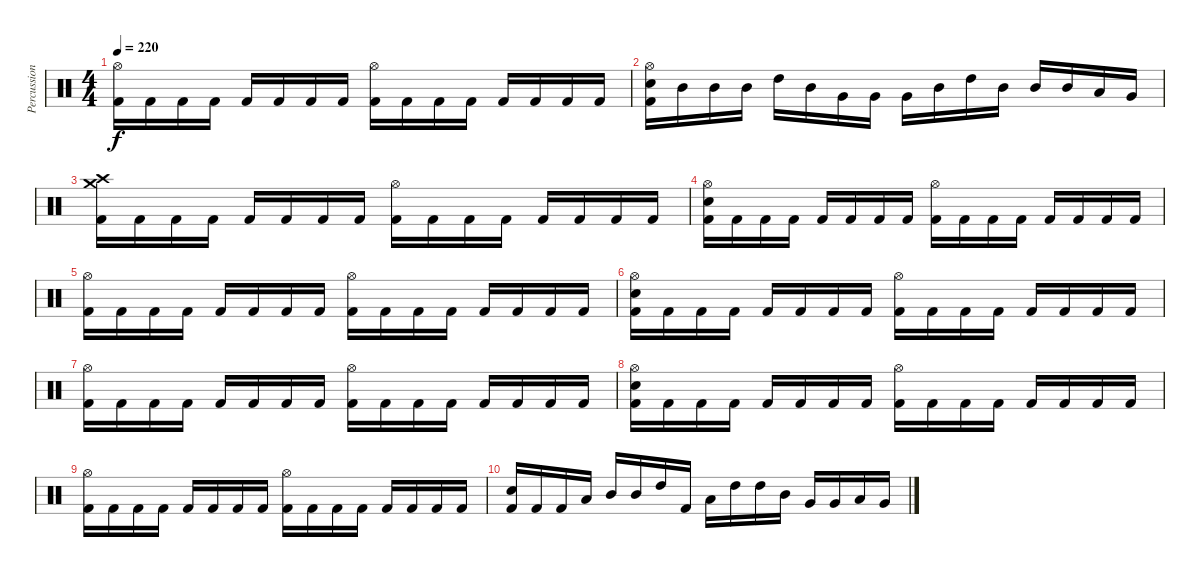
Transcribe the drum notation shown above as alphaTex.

\track ("Percussion" "Percussion") {instrument percussion}
\staff {score}
\articulation defaults
\ts (4 4)
\tempo 220
\clef neutral
\ks c
("Hi-Hat (open)" "Kick (hit) 2").16{dy f} "Kick (hit) 2".16 "Kick (hit) 2".16 "Kick (hit) 2".16 "Kick (hit) 2".16 "Kick (hit) 2".16 "Kick (hit) 2".16 "Kick (hit) 2".16 ("Hi-Hat (open)" "Kick (hit) 2").16 "Kick (hit) 2".16 "Kick (hit) 2".16 "Kick (hit) 2".16 "Kick (hit) 2".16 "Kick (hit) 2".16 "Kick (hit) 2".16 "Kick (hit) 2".16 |
("Hi-Hat (open)" "Electric Snare (hit)" "Kick (hit) 2").16 "Mid Tom (hit)".16 "Mid Tom (hit)".16 "Mid Tom (hit)".16 "High Tom (hit)".16 "Mid Tom (hit)".16 "Very Low Tom (hit)".16 "Very Low Tom (hit)".16 "Very Low Tom (hit)".16 "Mid Tom (hit)".16 "High Tom (hit)".16 "Mid Tom (hit)".16 "Mid Tom (hit)".16 "Mid Tom (hit)".16 "Low Tom (hit)".16 "Very Low Tom (hit)".16 |
("Crash medium (hit)" "Crash high (hit)" "Kick (hit) 2").16 "Kick (hit) 2".16 "Kick (hit) 2".16 "Kick (hit) 2".16 "Kick (hit) 2".16 "Kick (hit) 2".16 "Kick (hit) 2".16 "Kick (hit) 2".16 ("Hi-Hat (open)" "Kick (hit) 2").16 "Kick (hit) 2".16 "Kick (hit) 2".16 "Kick (hit) 2".16 "Kick (hit) 2".16 "Kick (hit) 2".16 "Kick (hit) 2".16 "Kick (hit) 2".16 |
("Hi-Hat (open)" "Electric Snare (hit)" "Kick (hit) 2").16 "Kick (hit) 2".16 "Kick (hit) 2".16 "Kick (hit) 2".16 "Kick (hit) 2".16 "Kick (hit) 2".16 "Kick (hit) 2".16 "Kick (hit) 2".16 ("Hi-Hat (open)" "Kick (hit) 2").16 "Kick (hit) 2".16 "Kick (hit) 2".16 "Kick (hit) 2".16 "Kick (hit) 2".16 "Kick (hit) 2".16 "Kick (hit) 2".16 "Kick (hit) 2".16 |
("Hi-Hat (open)" "Kick (hit) 2").16 "Kick (hit) 2".16 "Kick (hit) 2".16 "Kick (hit) 2".16 "Kick (hit) 2".16 "Kick (hit) 2".16 "Kick (hit) 2".16 "Kick (hit) 2".16 ("Hi-Hat (open)" "Kick (hit) 2").16 "Kick (hit) 2".16 "Kick (hit) 2".16 "Kick (hit) 2".16 "Kick (hit) 2".16 "Kick (hit) 2".16 "Kick (hit) 2".16 "Kick (hit) 2".16 |
("Hi-Hat (open)" "Electric Snare (hit)" "Kick (hit) 2").16 "Kick (hit) 2".16 "Kick (hit) 2".16 "Kick (hit) 2".16 "Kick (hit) 2".16 "Kick (hit) 2".16 "Kick (hit) 2".16 "Kick (hit) 2".16 ("Hi-Hat (open)" "Kick (hit) 2").16 "Kick (hit) 2".16 "Kick (hit) 2".16 "Kick (hit) 2".16 "Kick (hit) 2".16 "Kick (hit) 2".16 "Kick (hit) 2".16 "Kick (hit) 2".16 |
("Hi-Hat (open)" "Kick (hit) 2").16 "Kick (hit) 2".16 "Kick (hit) 2".16 "Kick (hit) 2".16 "Kick (hit) 2".16 "Kick (hit) 2".16 "Kick (hit) 2".16 "Kick (hit) 2".16 ("Hi-Hat (open)" "Kick (hit) 2").16 "Kick (hit) 2".16 "Kick (hit) 2".16 "Kick (hit) 2".16 "Kick (hit) 2".16 "Kick (hit) 2".16 "Kick (hit) 2".16 "Kick (hit) 2".16 |
("Hi-Hat (open)" "Electric Snare (hit)" "Kick (hit) 2").16 "Kick (hit) 2".16 "Kick (hit) 2".16 "Kick (hit) 2".16 "Kick (hit) 2".16 "Kick (hit) 2".16 "Kick (hit) 2".16 "Kick (hit) 2".16 ("Hi-Hat (open)" "Kick (hit) 2").16 "Kick (hit) 2".16 "Kick (hit) 2".16 "Kick (hit) 2".16 "Kick (hit) 2".16 "Kick (hit) 2".16 "Kick (hit) 2".16 "Kick (hit) 2".16 |
("Hi-Hat (open)" "Kick (hit) 2").16 "Kick (hit) 2".16 "Kick (hit) 2".16 "Kick (hit) 2".16 "Kick (hit) 2".16 "Kick (hit) 2".16 "Kick (hit) 2".16 "Kick (hit) 2".16 ("Hi-Hat (open)" "Kick (hit) 2").16 "Kick (hit) 2".16 "Kick (hit) 2".16 "Kick (hit) 2".16 "Kick (hit) 2".16 "Kick (hit) 2".16 "Kick (hit) 2".16 "Kick (hit) 2".16 |
("Electric Snare (hit)" "Kick (hit) 2").16 "Kick (hit) 2".16 "Kick (hit) 2".16 "Low Tom (hit)".16 "Mid Tom (hit)".16 "Mid Tom (hit)".16 "High Tom (hit)".16 "Kick (hit) 2".16 "Low Tom (hit)".16 "High Tom (hit)".16 "High Tom (hit)".16 "Mid Tom (hit)".16 "Very Low Tom (hit)".16 "Very Low Tom (hit)".16 "Low Tom (hit)".16 "Very Low Tom (hit)".16
